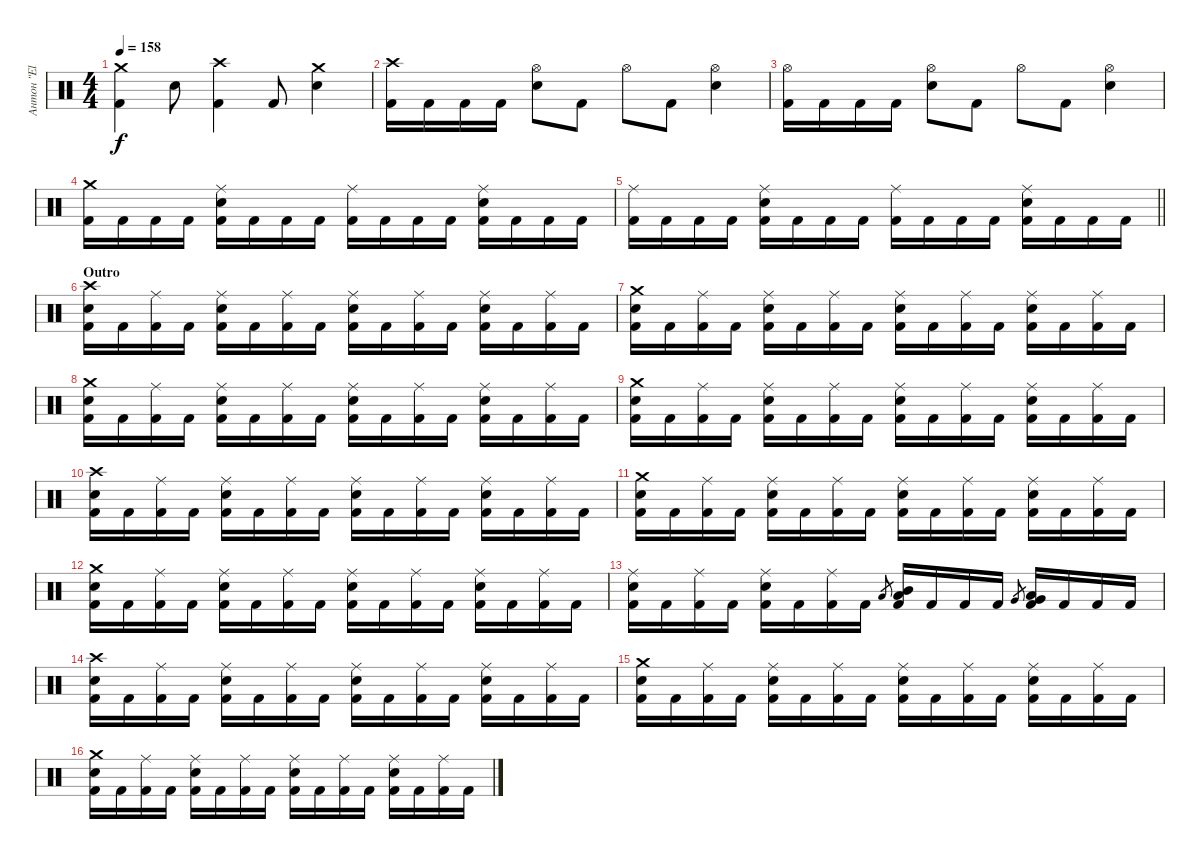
\track ("Антон \"El Bastardo\" Смольянин" "Антон \"El ") {instrument percussion}
\staff {score}
\articulation defaults
\ts (4 4)
\tempo 158
\clef neutral
\ks c
("Crash medium (hit)" "Kick (hit) 2").4{dy f} "Electric Snare (hit)".8 ("Crash high (hit)" "Kick (hit) 2").4 "Kick (hit) 2".8 ("Crash medium (hit)" "Electric Snare (hit)").4 |
("Crash high (hit)" "Kick (hit) 2").16 "Kick (hit) 2".16 "Kick (hit) 2".16 "Kick (hit) 2".16 ("Hi-Hat (open)" "Electric Snare (hit)").8 "Kick (hit) 2".8 "Hi-Hat (open)".8 "Kick (hit) 2".8 ("Hi-Hat (open)" "Electric Snare (hit)").4 |
("Hi-Hat (open)" "Kick (hit) 2").16 "Kick (hit) 2".16 "Kick (hit) 2".16 "Kick (hit) 2".16 ("Hi-Hat (open)" "Electric Snare (hit)").8 "Kick (hit) 2".8 "Hi-Hat (open)".8 "Kick (hit) 2".8 ("Hi-Hat (open)" "Electric Snare (hit)").4 |
("Crash medium (hit)" "Kick (hit) 2").16 "Kick (hit) 2".16 "Kick (hit) 2".16 "Kick (hit) 2".16 ("Ride (middle)" "Electric Snare (hit)" "Kick (hit) 2").16 "Kick (hit) 2".16 "Kick (hit) 2".16 "Kick (hit) 2".16 ("Ride (middle)" "Kick (hit) 2").16 "Kick (hit) 2".16 "Kick (hit) 2".16 "Kick (hit) 2".16 ("Ride (middle)" "Electric Snare (hit)" "Kick (hit) 2").16 "Kick (hit) 2".16 "Kick (hit) 2".16 "Kick (hit) 2".16 |
\barLineRight lightlight
("Ride (middle)" "Kick (hit) 2").16 "Kick (hit) 2".16 "Kick (hit) 2".16 "Kick (hit) 2".16 ("Ride (middle)" "Electric Snare (hit)" "Kick (hit) 2").16 "Kick (hit) 2".16 "Kick (hit) 2".16 "Kick (hit) 2".16 ("Ride (middle)" "Kick (hit) 2").16 "Kick (hit) 2".16 "Kick (hit) 2".16 "Kick (hit) 2".16 ("Ride (middle)" "Electric Snare (hit)" "Kick (hit) 2").16 "Kick (hit) 2".16 "Kick (hit) 2".16 "Kick (hit) 2".16 |
\section ("" "Outro")
("Crash high (hit)" "Electric Snare (hit)" "Kick (hit) 2").16 "Kick (hit) 2".16 ("Ride (middle)" "Kick (hit) 2").16 "Kick (hit) 2".16 ("Ride (middle)" "Electric Snare (hit)" "Kick (hit) 2").16 "Kick (hit) 2".16 ("Ride (middle)" "Kick (hit) 2").16 "Kick (hit) 2".16 ("Ride (middle)" "Electric Snare (hit)" "Kick (hit) 2").16 "Kick (hit) 2".16 ("Ride (middle)" "Kick (hit) 2").16 "Kick (hit) 2".16 ("Ride (middle)" "Electric Snare (hit)" "Kick (hit) 2").16 "Kick (hit) 2".16 ("Ride (middle)" "Kick (hit) 2").16 "Kick (hit) 2".16 |
("Crash medium (hit)" "Electric Snare (hit)" "Kick (hit) 2").16 "Kick (hit) 2".16 ("Ride (middle)" "Kick (hit) 2").16 "Kick (hit) 2".16 ("Ride (middle)" "Electric Snare (hit)" "Kick (hit) 2").16 "Kick (hit) 2".16 ("Ride (middle)" "Kick (hit) 2").16 "Kick (hit) 2".16 ("Ride (middle)" "Electric Snare (hit)" "Kick (hit) 2").16 "Kick (hit) 2".16 ("Ride (middle)" "Kick (hit) 2").16 "Kick (hit) 2".16 ("Ride (middle)" "Electric Snare (hit)" "Kick (hit) 2").16 "Kick (hit) 2".16 ("Ride (middle)" "Kick (hit) 2").16 "Kick (hit) 2".16 |
("Crash medium (hit)" "Electric Snare (hit)" "Kick (hit) 2").16 "Kick (hit) 2".16 ("Ride (middle)" "Kick (hit) 2").16 "Kick (hit) 2".16 ("Ride (middle)" "Electric Snare (hit)" "Kick (hit) 2").16 "Kick (hit) 2".16 ("Ride (middle)" "Kick (hit) 2").16 "Kick (hit) 2".16 ("Ride (middle)" "Electric Snare (hit)" "Kick (hit) 2").16 "Kick (hit) 2".16 ("Ride (middle)" "Kick (hit) 2").16 "Kick (hit) 2".16 ("Ride (middle)" "Electric Snare (hit)" "Kick (hit) 2").16 "Kick (hit) 2".16 ("Ride (middle)" "Kick (hit) 2").16 "Kick (hit) 2".16 |
("Crash medium (hit)" "Electric Snare (hit)" "Kick (hit) 2").16 "Kick (hit) 2".16 ("Ride (middle)" "Kick (hit) 2").16 "Kick (hit) 2".16 ("Ride (middle)" "Electric Snare (hit)" "Kick (hit) 2").16 "Kick (hit) 2".16 ("Ride (middle)" "Kick (hit) 2").16 "Kick (hit) 2".16 ("Ride (middle)" "Electric Snare (hit)" "Kick (hit) 2").16 "Kick (hit) 2".16 ("Ride (middle)" "Kick (hit) 2").16 "Kick (hit) 2".16 ("Ride (middle)" "Electric Snare (hit)" "Kick (hit) 2").16 "Kick (hit) 2".16 ("Ride (middle)" "Kick (hit) 2").16 "Kick (hit) 2".16 |
("Crash high (hit)" "Electric Snare (hit)" "Kick (hit) 2").16 "Kick (hit) 2".16 ("Ride (middle)" "Kick (hit) 2").16 "Kick (hit) 2".16 ("Ride (middle)" "Electric Snare (hit)" "Kick (hit) 2").16 "Kick (hit) 2".16 ("Ride (middle)" "Kick (hit) 2").16 "Kick (hit) 2".16 ("Ride (middle)" "Electric Snare (hit)" "Kick (hit) 2").16 "Kick (hit) 2".16 ("Ride (middle)" "Kick (hit) 2").16 "Kick (hit) 2".16 ("Ride (middle)" "Electric Snare (hit)" "Kick (hit) 2").16 "Kick (hit) 2".16 ("Ride (middle)" "Kick (hit) 2").16 "Kick (hit) 2".16 |
("Crash medium (hit)" "Electric Snare (hit)" "Kick (hit) 2").16 "Kick (hit) 2".16 ("Ride (middle)" "Kick (hit) 2").16 "Kick (hit) 2".16 ("Ride (middle)" "Electric Snare (hit)" "Kick (hit) 2").16 "Kick (hit) 2".16 ("Ride (middle)" "Kick (hit) 2").16 "Kick (hit) 2".16 ("Ride (middle)" "Electric Snare (hit)" "Kick (hit) 2").16 "Kick (hit) 2".16 ("Ride (middle)" "Kick (hit) 2").16 "Kick (hit) 2".16 ("Ride (middle)" "Electric Snare (hit)" "Kick (hit) 2").16 "Kick (hit) 2".16 ("Ride (middle)" "Kick (hit) 2").16 "Kick (hit) 2".16 |
("Crash medium (hit)" "Electric Snare (hit)" "Kick (hit) 2").16 "Kick (hit) 2".16 ("Ride (middle)" "Kick (hit) 2").16 "Kick (hit) 2".16 ("Ride (middle)" "Electric Snare (hit)" "Kick (hit) 2").16 "Kick (hit) 2".16 ("Ride (middle)" "Kick (hit) 2").16 "Kick (hit) 2".16 ("Ride (middle)" "Electric Snare (hit)" "Kick (hit) 2").16 "Kick (hit) 2".16 ("Ride (middle)" "Kick (hit) 2").16 "Kick (hit) 2".16 ("Ride (middle)" "Electric Snare (hit)" "Kick (hit) 2").16 "Kick (hit) 2".16 ("Ride (middle)" "Kick (hit) 2").16 "Kick (hit) 2".16 |
("Ride (middle)" "Electric Snare (hit)" "Kick (hit) 2").16 "Kick (hit) 2".16 ("Ride (middle)" "Kick (hit) 2").16 "Kick (hit) 2".16 ("Ride (middle)" "Electric Snare (hit)" "Kick (hit) 2").16 "Kick (hit) 2".16 ("Ride (middle)" "Kick (hit) 2").16 "Kick (hit) 2".16 "Low Tom (hit)".8{gr} ("Mid Tom (hit)" "Low Tom (hit)" "Kick (hit) 2").16 "Kick (hit) 2".16 "Kick (hit) 2".16 "Kick (hit) 2".16 "Very Low Tom (hit)".8{gr} ("Low Tom (hit)" "Very Low Tom (hit)" "Kick (hit) 2").16 "Kick (hit) 2".16 "Kick (hit) 2".16 "Kick (hit) 2".16 |
("Crash high (hit)" "Electric Snare (hit)" "Kick (hit) 2").16 "Kick (hit) 2".16 ("Ride (middle)" "Kick (hit) 2").16 "Kick (hit) 2".16 ("Ride (middle)" "Electric Snare (hit)" "Kick (hit) 2").16 "Kick (hit) 2".16 ("Ride (middle)" "Kick (hit) 2").16 "Kick (hit) 2".16 ("Ride (middle)" "Electric Snare (hit)" "Kick (hit) 2").16 "Kick (hit) 2".16 ("Ride (middle)" "Kick (hit) 2").16 "Kick (hit) 2".16 ("Ride (middle)" "Electric Snare (hit)" "Kick (hit) 2").16 "Kick (hit) 2".16 ("Ride (middle)" "Kick (hit) 2").16 "Kick (hit) 2".16 |
("Crash medium (hit)" "Electric Snare (hit)" "Kick (hit) 2").16 "Kick (hit) 2".16 ("Ride (middle)" "Kick (hit) 2").16 "Kick (hit) 2".16 ("Ride (middle)" "Electric Snare (hit)" "Kick (hit) 2").16 "Kick (hit) 2".16 ("Ride (middle)" "Kick (hit) 2").16 "Kick (hit) 2".16 ("Ride (middle)" "Electric Snare (hit)" "Kick (hit) 2").16 "Kick (hit) 2".16 ("Ride (middle)" "Kick (hit) 2").16 "Kick (hit) 2".16 ("Ride (middle)" "Electric Snare (hit)" "Kick (hit) 2").16 "Kick (hit) 2".16 ("Ride (middle)" "Kick (hit) 2").16 "Kick (hit) 2".16 |
("Crash medium (hit)" "Electric Snare (hit)" "Kick (hit) 2").16 "Kick (hit) 2".16 ("Ride (middle)" "Kick (hit) 2").16 "Kick (hit) 2".16 ("Ride (middle)" "Electric Snare (hit)" "Kick (hit) 2").16 "Kick (hit) 2".16 ("Ride (middle)" "Kick (hit) 2").16 "Kick (hit) 2".16 ("Ride (middle)" "Electric Snare (hit)" "Kick (hit) 2").16 "Kick (hit) 2".16 ("Ride (middle)" "Kick (hit) 2").16 "Kick (hit) 2".16 ("Ride (middle)" "Electric Snare (hit)" "Kick (hit) 2").16 "Kick (hit) 2".16 ("Ride (middle)" "Kick (hit) 2").16 "Kick (hit) 2".16
